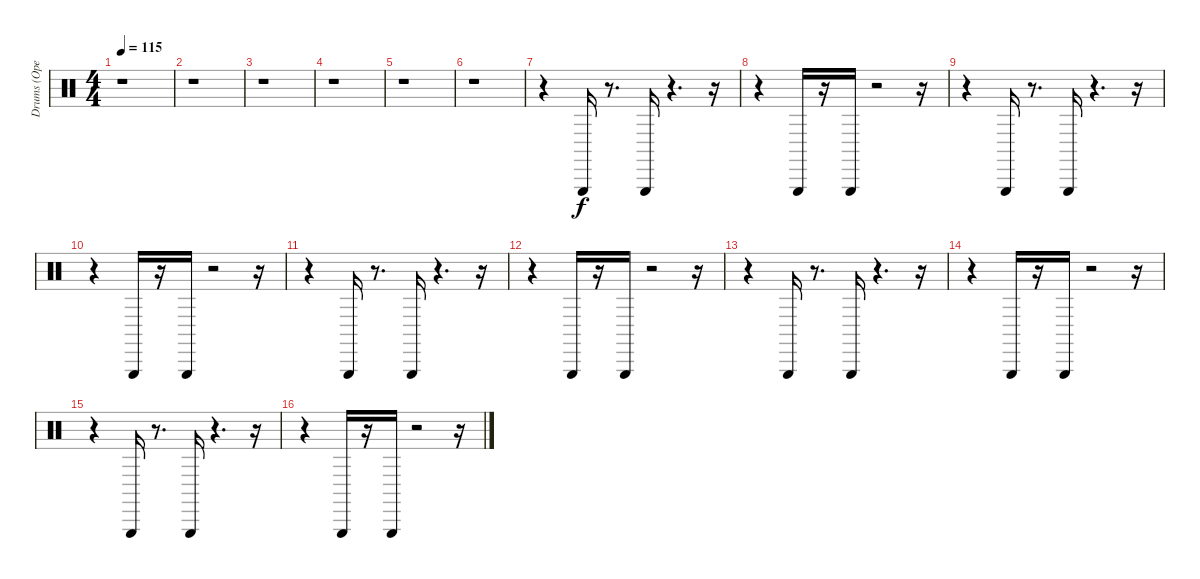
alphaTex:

\track ("Drums (Open triangle" "Drums (Ope") {instrument percussion}
\staff {score}
\articulation defaults
\ts (4 4)
\tempo 115
\clef neutral
\ks c
r.1{dy f} |
r.1 |
r.1 |
r.1 |
r.1 |
r.1 |
r.4 "Triangle (hit)".16 r.8{d} "Triangle (hit)".16 r.4{d} r.16 |
r.4 "Triangle (hit)".16 r.16 "Triangle (hit)".16 r.2 r.16 |
r.4 "Triangle (hit)".16 r.8{d} "Triangle (hit)".16 r.4{d} r.16 |
r.4 "Triangle (hit)".16 r.16 "Triangle (hit)".16 r.2 r.16 |
r.4 "Triangle (hit)".16 r.8{d} "Triangle (hit)".16 r.4{d} r.16 |
r.4 "Triangle (hit)".16 r.16 "Triangle (hit)".16 r.2 r.16 |
r.4 "Triangle (hit)".16 r.8{d} "Triangle (hit)".16 r.4{d} r.16 |
r.4 "Triangle (hit)".16 r.16 "Triangle (hit)".16 r.2 r.16 |
r.4 "Triangle (hit)".16 r.8{d} "Triangle (hit)".16 r.4{d} r.16 |
r.4 "Triangle (hit)".16 r.16 "Triangle (hit)".16 r.2 r.16
